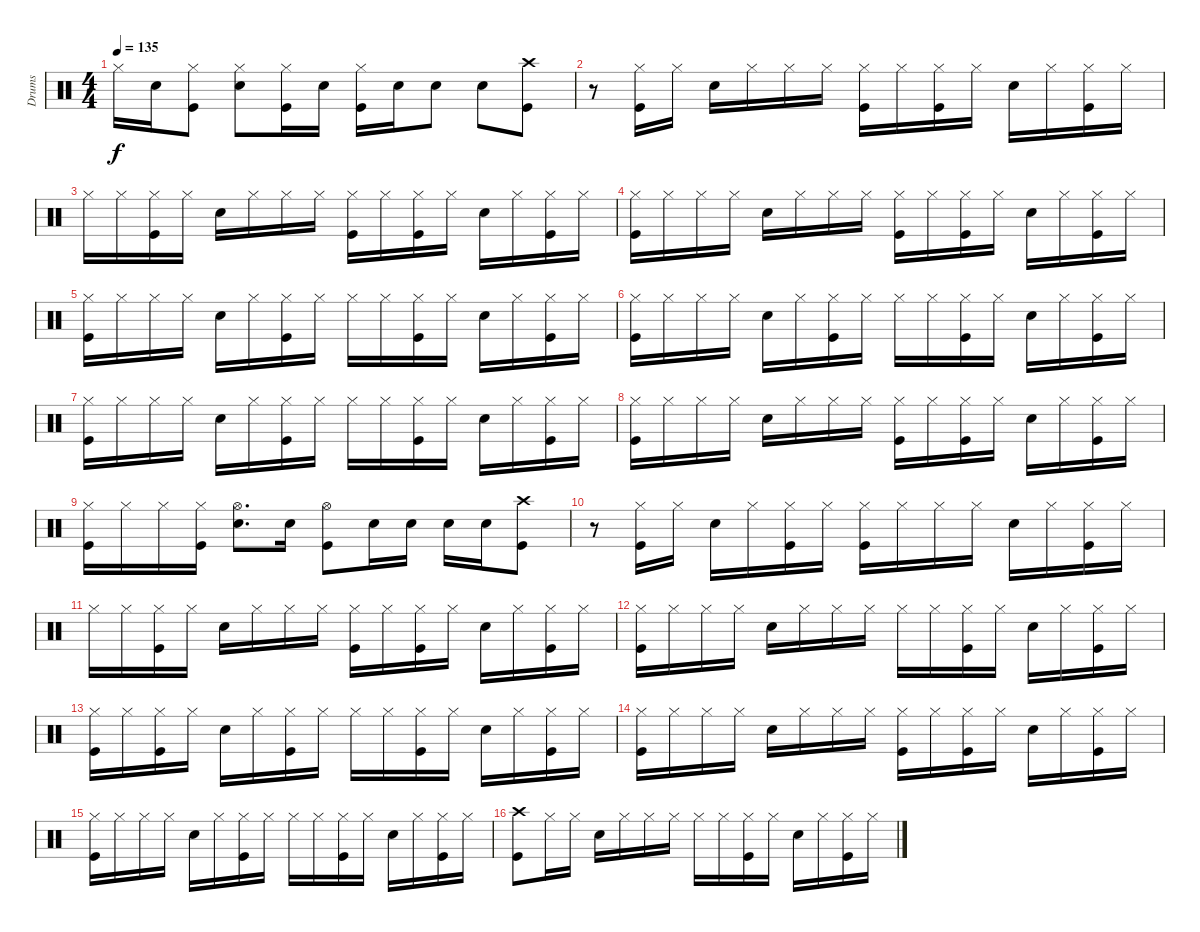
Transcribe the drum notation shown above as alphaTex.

\track ("Drums" "Drums") {instrument percussion}
\staff {score}
\articulation defaults
\ts (4 4)
\tempo 135
\clef neutral
\ks c "Hi-Hat (closed)".16{dy f} "Electric Snare (hit)".16
("Kick (hit)" "Hi-Hat (closed)").8 ("Electric Snare (hit)" "Hi-Hat (closed)").8 ("Kick (hit)" "Hi-Hat (closed)").16 "Electric Snare (hit)".16 ("Kick (hit)" "Hi-Hat (closed)").16 "Electric Snare (hit)".16 "Electric Snare (hit)".8 "Electric Snare (hit)".8 ("Kick (hit)" "Crash high (hit)").8 |
r.8 ("Kick (hit)" "Hi-Hat (closed)").16 "Hi-Hat (closed)".16 "Electric Snare (hit)".16 "Hi-Hat (closed)".16 "Hi-Hat (closed)".16 "Hi-Hat (closed)".16 ("Kick (hit)" "Hi-Hat (closed)").16 "Hi-Hat (closed)".16 ("Kick (hit)" "Hi-Hat (closed)").16 "Hi-Hat (closed)".16 "Electric Snare (hit)".16 "Hi-Hat (closed)".16 ("Kick (hit)" "Hi-Hat (closed)").16 "Hi-Hat (closed)".16 |
"Hi-Hat (closed)".16 "Hi-Hat (closed)".16 ("Kick (hit)" "Hi-Hat (closed)").16 "Hi-Hat (closed)".16 "Electric Snare (hit)".16 "Hi-Hat (closed)".16 "Hi-Hat (closed)".16 "Hi-Hat (closed)".16 ("Kick (hit)" "Hi-Hat (closed)").16 "Hi-Hat (closed)".16 ("Kick (hit)" "Hi-Hat (closed)").16 "Hi-Hat (closed)".16 "Electric Snare (hit)".16 "Hi-Hat (closed)".16 ("Kick (hit)" "Hi-Hat (closed)").16 "Hi-Hat (closed)".16 |
("Kick (hit)" "Hi-Hat (closed)").16 "Hi-Hat (closed)".16 "Hi-Hat (closed)".16 "Hi-Hat (closed)".16 "Electric Snare (hit)".16 "Hi-Hat (closed)".16 "Hi-Hat (closed)".16 "Hi-Hat (closed)".16 ("Kick (hit)" "Hi-Hat (closed)").16 "Hi-Hat (closed)".16 ("Kick (hit)" "Hi-Hat (closed)").16 "Hi-Hat (closed)".16 "Electric Snare (hit)".16 "Hi-Hat (closed)".16 ("Kick (hit)" "Hi-Hat (closed)").16 "Hi-Hat (closed)".16 |
("Kick (hit)" "Hi-Hat (closed)").16 "Hi-Hat (closed)".16 "Hi-Hat (closed)".16 "Hi-Hat (closed)".16 "Electric Snare (hit)".16 "Hi-Hat (closed)".16 ("Kick (hit)" "Hi-Hat (closed)").16 "Hi-Hat (closed)".16 "Hi-Hat (closed)".16 "Hi-Hat (closed)".16 ("Kick (hit)" "Hi-Hat (closed)").16 "Hi-Hat (closed)".16 "Electric Snare (hit)".16 "Hi-Hat (closed)".16 ("Kick (hit)" "Hi-Hat (closed)").16 "Hi-Hat (closed)".16 |
("Kick (hit)" "Hi-Hat (closed)").16 "Hi-Hat (closed)".16 "Hi-Hat (closed)".16 "Hi-Hat (closed)".16 "Electric Snare (hit)".16 "Hi-Hat (closed)".16 ("Kick (hit)" "Hi-Hat (closed)").16 "Hi-Hat (closed)".16 "Hi-Hat (closed)".16 "Hi-Hat (closed)".16 ("Kick (hit)" "Hi-Hat (closed)").16 "Hi-Hat (closed)".16 "Electric Snare (hit)".16 "Hi-Hat (closed)".16 ("Kick (hit)" "Hi-Hat (closed)").16 "Hi-Hat (closed)".16 |
("Kick (hit)" "Hi-Hat (closed)").16 "Hi-Hat (closed)".16 "Hi-Hat (closed)".16 "Hi-Hat (closed)".16 "Electric Snare (hit)".16 "Hi-Hat (closed)".16 ("Kick (hit)" "Hi-Hat (closed)").16 "Hi-Hat (closed)".16 "Hi-Hat (closed)".16 "Hi-Hat (closed)".16 ("Kick (hit)" "Hi-Hat (closed)").16 "Hi-Hat (closed)".16 "Electric Snare (hit)".16 "Hi-Hat (closed)".16 ("Kick (hit)" "Hi-Hat (closed)").16 "Hi-Hat (closed)".16 |
("Kick (hit)" "Hi-Hat (closed)").16 "Hi-Hat (closed)".16 "Hi-Hat (closed)".16 "Hi-Hat (closed)".16 "Electric Snare (hit)".16 "Hi-Hat (closed)".16 "Hi-Hat (closed)".16 "Hi-Hat (closed)".16 ("Kick (hit)" "Hi-Hat (closed)").16 "Hi-Hat (closed)".16 ("Kick (hit)" "Hi-Hat (closed)").16 "Hi-Hat (closed)".16 "Electric Snare (hit)".16 "Hi-Hat (closed)".16 ("Kick (hit)" "Hi-Hat (closed)").16 "Hi-Hat (closed)".16 |
("Kick (hit)" "Hi-Hat (closed)").16 "Hi-Hat (closed)".16 "Hi-Hat (closed)".16 ("Kick (hit)" "Hi-Hat (closed)").16 ("Electric Snare (hit)" "Hi-Hat (open)").8{d} "Electric Snare (hit)".16 ("Kick (hit)" "Hi-Hat (open)").8 "Electric Snare (hit)".16 "Electric Snare (hit)".16 "Electric Snare (hit)".16 "Electric Snare (hit)".16 ("Kick (hit)" "Crash high (hit)").8 |
r.8 ("Kick (hit)" "Hi-Hat (closed)").16 "Hi-Hat (closed)".16 "Electric Snare (hit)".16 "Hi-Hat (closed)".16 ("Kick (hit)" "Hi-Hat (closed)").16 "Hi-Hat (closed)".16 ("Kick (hit)" "Hi-Hat (closed)").16 "Hi-Hat (closed)".16 "Hi-Hat (closed)".16 "Hi-Hat (closed)".16 "Electric Snare (hit)".16 "Hi-Hat (closed)".16 ("Kick (hit)" "Hi-Hat (closed)").16 "Hi-Hat (closed)".16 |
"Hi-Hat (closed)".16 "Hi-Hat (closed)".16 ("Kick (hit)" "Hi-Hat (closed)").16 "Hi-Hat (closed)".16 "Electric Snare (hit)".16 "Hi-Hat (closed)".16 "Hi-Hat (closed)".16 "Hi-Hat (closed)".16 ("Kick (hit)" "Hi-Hat (closed)").16 "Hi-Hat (closed)".16 ("Kick (hit)" "Hi-Hat (closed)").16 "Hi-Hat (closed)".16 "Electric Snare (hit)".16 "Hi-Hat (closed)".16 ("Kick (hit)" "Hi-Hat (closed)").16 "Hi-Hat (closed)".16 |
("Kick (hit)" "Hi-Hat (closed)").16 "Hi-Hat (closed)".16 "Hi-Hat (closed)".16 "Hi-Hat (closed)".16 "Electric Snare (hit)".16 "Hi-Hat (closed)".16 "Hi-Hat (closed)".16 "Hi-Hat (closed)".16 "Hi-Hat (closed)".16 "Hi-Hat (closed)".16 ("Kick (hit)" "Hi-Hat (closed)").16 "Hi-Hat (closed)".16 "Electric Snare (hit)".16 "Hi-Hat (closed)".16 ("Kick (hit)" "Hi-Hat (closed)").16 "Hi-Hat (closed)".16 |
("Kick (hit)" "Hi-Hat (closed)").16 "Hi-Hat (closed)".16 ("Kick (hit)" "Hi-Hat (closed)").16 "Hi-Hat (closed)".16 "Electric Snare (hit)".16 "Hi-Hat (closed)".16 ("Kick (hit)" "Hi-Hat (closed)").16 "Hi-Hat (closed)".16 "Hi-Hat (closed)".16 "Hi-Hat (closed)".16 ("Kick (hit)" "Hi-Hat (closed)").16 "Hi-Hat (closed)".16 "Electric Snare (hit)".16 "Hi-Hat (closed)".16 ("Kick (hit)" "Hi-Hat (closed)").16 "Hi-Hat (closed)".16 |
("Kick (hit)" "Hi-Hat (closed)").16 "Hi-Hat (closed)".16 "Hi-Hat (closed)".16 "Hi-Hat (closed)".16 "Electric Snare (hit)".16 "Hi-Hat (closed)".16 "Hi-Hat (closed)".16 "Hi-Hat (closed)".16 ("Kick (hit)" "Hi-Hat (closed)").16 "Hi-Hat (closed)".16 ("Kick (hit)" "Hi-Hat (closed)").16 "Hi-Hat (closed)".16 "Electric Snare (hit)".16 "Hi-Hat (closed)".16 ("Kick (hit)" "Hi-Hat (closed)").16 "Hi-Hat (closed)".16 |
("Kick (hit)" "Hi-Hat (closed)").16 "Hi-Hat (closed)".16 "Hi-Hat (closed)".16 "Hi-Hat (closed)".16 "Electric Snare (hit)".16 "Hi-Hat (closed)".16 ("Kick (hit)" "Hi-Hat (closed)").16 "Hi-Hat (closed)".16 "Hi-Hat (closed)".16 "Hi-Hat (closed)".16 ("Kick (hit)" "Hi-Hat (closed)").16 "Hi-Hat (closed)".16 "Electric Snare (hit)".16 "Hi-Hat (closed)".16 ("Kick (hit)" "Hi-Hat (closed)").16 "Hi-Hat (closed)".16 |
("Kick (hit)" "Crash high (hit)").8 "Hi-Hat (closed)".16 "Hi-Hat (closed)".16 "Electric Snare (hit)".16 "Hi-Hat (closed)".16 "Hi-Hat (closed)".16 "Hi-Hat (closed)".16 "Hi-Hat (closed)".16 "Hi-Hat (closed)".16 ("Kick (hit)" "Hi-Hat (closed)").16 "Hi-Hat (closed)".16 "Electric Snare (hit)".16 "Hi-Hat (closed)".16 ("Kick (hit)" "Hi-Hat (closed)").16 "Hi-Hat (closed)".16
